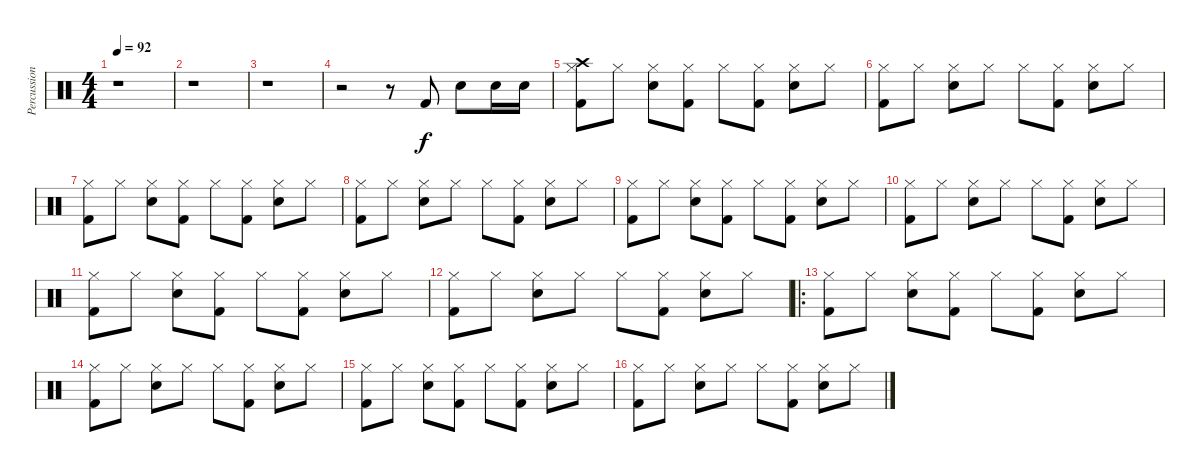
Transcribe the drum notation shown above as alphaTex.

\track ("Percussion" "Percussion") {instrument percussion}
\staff {score}
\articulation defaults
\ts (4 4)
\tempo 92
\clef neutral
\ks c
r.1{dy f} |
r.1 |
r.1 |
r.2 r.8 "Kick (hit) 2".8 "Snare (hit) 2".8 "Snare (hit) 2".16 "Snare (hit) 2".16 |
("Crash high (hit)" "Hi-Hat (closed)" "Kick (hit) 2").8 "Hi-Hat (closed)".8 ("Hi-Hat (closed)" "Snare (hit) 2").8 ("Hi-Hat (closed)" "Kick (hit) 2").8 "Hi-Hat (closed)".8 ("Hi-Hat (closed)" "Kick (hit) 2").8 ("Hi-Hat (closed)" "Snare (hit) 2").8 "Hi-Hat (closed)".8 |
("Hi-Hat (closed)" "Kick (hit) 2").8 "Hi-Hat (closed)".8 ("Hi-Hat (closed)" "Snare (hit) 2").8 "Hi-Hat (closed)".8 "Hi-Hat (closed)".8 ("Hi-Hat (closed)" "Kick (hit) 2").8 ("Hi-Hat (closed)" "Snare (hit) 2").8 "Hi-Hat (closed)".8 |
("Hi-Hat (closed)" "Kick (hit) 2").8 "Hi-Hat (closed)".8 ("Hi-Hat (closed)" "Snare (hit) 2").8 ("Hi-Hat (closed)" "Kick (hit) 2").8 "Hi-Hat (closed)".8 ("Hi-Hat (closed)" "Kick (hit) 2").8 ("Hi-Hat (closed)" "Snare (hit) 2").8 "Hi-Hat (closed)".8 |
("Hi-Hat (closed)" "Kick (hit) 2").8 "Hi-Hat (closed)".8 ("Hi-Hat (closed)" "Snare (hit) 2").8 "Hi-Hat (closed)".8 "Hi-Hat (closed)".8 ("Hi-Hat (closed)" "Kick (hit) 2").8 ("Hi-Hat (closed)" "Snare (hit) 2").8 "Hi-Hat (closed)".8 |
("Hi-Hat (closed)" "Kick (hit) 2").8 "Hi-Hat (closed)".8 ("Hi-Hat (closed)" "Snare (hit) 2").8 ("Hi-Hat (closed)" "Kick (hit) 2").8 "Hi-Hat (closed)".8 ("Hi-Hat (closed)" "Kick (hit) 2").8 ("Hi-Hat (closed)" "Snare (hit) 2").8 "Hi-Hat (closed)".8 |
("Hi-Hat (closed)" "Kick (hit) 2").8 "Hi-Hat (closed)".8 ("Hi-Hat (closed)" "Snare (hit) 2").8 "Hi-Hat (closed)".8 "Hi-Hat (closed)".8 ("Hi-Hat (closed)" "Kick (hit) 2").8 ("Hi-Hat (closed)" "Snare (hit) 2").8 "Hi-Hat (closed)".8 |
("Hi-Hat (closed)" "Kick (hit) 2").8 "Hi-Hat (closed)".8 ("Hi-Hat (closed)" "Snare (hit) 2").8 ("Hi-Hat (closed)" "Kick (hit) 2").8 "Hi-Hat (closed)".8 ("Hi-Hat (closed)" "Kick (hit) 2").8 ("Hi-Hat (closed)" "Snare (hit) 2").8 "Hi-Hat (closed)".8 |
("Hi-Hat (closed)" "Kick (hit) 2").8 "Hi-Hat (closed)".8 ("Hi-Hat (closed)" "Snare (hit) 2").8 "Hi-Hat (closed)".8 "Hi-Hat (closed)".8 ("Hi-Hat (closed)" "Kick (hit) 2").8 ("Hi-Hat (closed)" "Snare (hit) 2").8 "Hi-Hat (closed)".8 |
\ro
("Hi-Hat (closed)" "Kick (hit) 2").8 "Hi-Hat (closed)".8 ("Hi-Hat (closed)" "Snare (hit) 2").8 ("Hi-Hat (closed)" "Kick (hit) 2").8 "Hi-Hat (closed)".8 ("Hi-Hat (closed)" "Kick (hit) 2").8 ("Hi-Hat (closed)" "Snare (hit) 2").8 "Hi-Hat (closed)".8 |
("Hi-Hat (closed)" "Kick (hit) 2").8 "Hi-Hat (closed)".8 ("Hi-Hat (closed)" "Snare (hit) 2").8 "Hi-Hat (closed)".8 "Hi-Hat (closed)".8 ("Hi-Hat (closed)" "Kick (hit) 2").8 ("Hi-Hat (closed)" "Snare (hit) 2").8 "Hi-Hat (closed)".8 |
("Hi-Hat (closed)" "Kick (hit) 2").8 "Hi-Hat (closed)".8 ("Hi-Hat (closed)" "Snare (hit) 2").8 ("Hi-Hat (closed)" "Kick (hit) 2").8 "Hi-Hat (closed)".8 ("Hi-Hat (closed)" "Kick (hit) 2").8 ("Hi-Hat (closed)" "Snare (hit) 2").8 "Hi-Hat (closed)".8 |
("Hi-Hat (closed)" "Kick (hit) 2").8 "Hi-Hat (closed)".8 ("Hi-Hat (closed)" "Snare (hit) 2").8 "Hi-Hat (closed)".8 "Hi-Hat (closed)".8 ("Hi-Hat (closed)" "Kick (hit) 2").8 ("Hi-Hat (closed)" "Snare (hit) 2").8 "Hi-Hat (closed)".8
